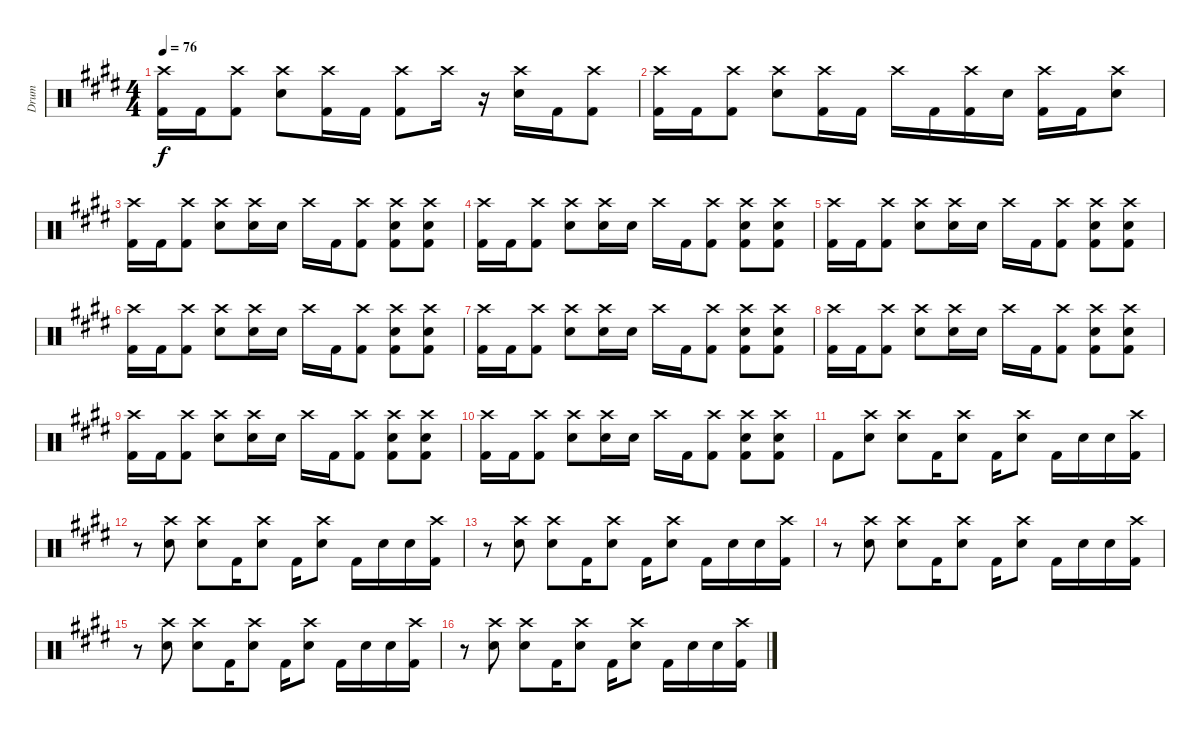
\track ("Drum" "Drum") {instrument percussion}
\staff {score}
\articulation defaults
\ts (4 4)
\tempo 76
\clef neutral
\ks e
("Crash high (hit)" "Kick (hit) 2").16{dy f volume 11} "Kick (hit) 2".16 ("Crash high (hit)" "Kick (hit) 2").8 ("Crash high (hit)" "Electric Snare (hit)").8 ("Crash high (hit)" "Kick (hit) 2").16 "Kick (hit) 2".16 ("Crash high (hit)" "Kick (hit) 2").8 "Crash high (hit)".16 r.16 ("Crash high (hit)" "Electric Snare (hit)").16 "Kick (hit) 2".16 ("Crash high (hit)" "Kick (hit) 2").8 |
("Crash high (hit)" "Kick (hit) 2").16{volume 11} "Kick (hit) 2".16 ("Crash high (hit)" "Kick (hit) 2").8 ("Crash high (hit)" "Electric Snare (hit)").8 ("Crash high (hit)" "Kick (hit) 2").16 "Kick (hit) 2".16 "Crash high (hit)".16 "Kick (hit) 2".16 ("Crash high (hit)" "Kick (hit) 2").16 "Electric Snare (hit)".16 ("Crash high (hit)" "Kick (hit) 2").16 "Kick (hit) 2".16 ("Crash high (hit)" "Electric Snare (hit)").8 |
("Crash high (hit)" "Kick (hit) 2").16 "Kick (hit) 2".16 ("Crash high (hit)" "Kick (hit) 2").8 ("Crash high (hit)" "Electric Snare (hit)").8 ("Crash high (hit)" "Electric Snare (hit)").16 "Electric Snare (hit)".16 "Crash high (hit)".16 "Kick (hit) 2".16 ("Crash high (hit)" "Kick (hit) 2").8 ("Crash high (hit)" "Electric Snare (hit)" "Kick (hit) 2").8 ("Crash high (hit)" "Electric Snare (hit)" "Kick (hit) 2").8 |
("Crash high (hit)" "Kick (hit) 2").16 "Kick (hit) 2".16 ("Crash high (hit)" "Kick (hit) 2").8 ("Crash high (hit)" "Electric Snare (hit)").8 ("Crash high (hit)" "Electric Snare (hit)").16 "Electric Snare (hit)".16 "Crash high (hit)".16 "Kick (hit) 2".16 ("Crash high (hit)" "Kick (hit) 2").8 ("Crash high (hit)" "Electric Snare (hit)" "Kick (hit) 2").8 ("Crash high (hit)" "Electric Snare (hit)" "Kick (hit) 2").8 |
("Crash high (hit)" "Kick (hit) 2").16 "Kick (hit) 2".16 ("Crash high (hit)" "Kick (hit) 2").8 ("Crash high (hit)" "Electric Snare (hit)").8 ("Crash high (hit)" "Electric Snare (hit)").16 "Electric Snare (hit)".16 "Crash high (hit)".16 "Kick (hit) 2".16 ("Crash high (hit)" "Kick (hit) 2").8 ("Crash high (hit)" "Electric Snare (hit)" "Kick (hit) 2").8 ("Crash high (hit)" "Electric Snare (hit)" "Kick (hit) 2").8 |
("Crash high (hit)" "Kick (hit) 2").16 "Kick (hit) 2".16 ("Crash high (hit)" "Kick (hit) 2").8 ("Crash high (hit)" "Electric Snare (hit)").8 ("Crash high (hit)" "Electric Snare (hit)").16 "Electric Snare (hit)".16 "Crash high (hit)".16 "Kick (hit) 2".16 ("Crash high (hit)" "Kick (hit) 2").8 ("Crash high (hit)" "Electric Snare (hit)" "Kick (hit) 2").8 ("Crash high (hit)" "Electric Snare (hit)" "Kick (hit) 2").8 |
("Crash high (hit)" "Kick (hit) 2").16 "Kick (hit) 2".16 ("Crash high (hit)" "Kick (hit) 2").8 ("Crash high (hit)" "Electric Snare (hit)").8 ("Crash high (hit)" "Electric Snare (hit)").16 "Electric Snare (hit)".16 "Crash high (hit)".16 "Kick (hit) 2".16 ("Crash high (hit)" "Kick (hit) 2").8 ("Crash high (hit)" "Electric Snare (hit)" "Kick (hit) 2").8 ("Crash high (hit)" "Electric Snare (hit)" "Kick (hit) 2").8 |
("Crash high (hit)" "Kick (hit) 2").16 "Kick (hit) 2".16 ("Crash high (hit)" "Kick (hit) 2").8 ("Crash high (hit)" "Electric Snare (hit)").8 ("Crash high (hit)" "Electric Snare (hit)").16 "Electric Snare (hit)".16 "Crash high (hit)".16 "Kick (hit) 2".16 ("Crash high (hit)" "Kick (hit) 2").8 ("Crash high (hit)" "Electric Snare (hit)" "Kick (hit) 2").8 ("Crash high (hit)" "Electric Snare (hit)" "Kick (hit) 2").8 |
("Crash high (hit)" "Kick (hit) 2").16 "Kick (hit) 2".16 ("Crash high (hit)" "Kick (hit) 2").8 ("Crash high (hit)" "Electric Snare (hit)").8 ("Crash high (hit)" "Electric Snare (hit)").16 "Electric Snare (hit)".16 "Crash high (hit)".16 "Kick (hit) 2".16 ("Crash high (hit)" "Kick (hit) 2").8 ("Crash high (hit)" "Electric Snare (hit)" "Kick (hit) 2").8 ("Crash high (hit)" "Electric Snare (hit)" "Kick (hit) 2").8 |
("Crash high (hit)" "Kick (hit) 2").16 "Kick (hit) 2".16 ("Crash high (hit)" "Kick (hit) 2").8 ("Crash high (hit)" "Electric Snare (hit)").8 ("Crash high (hit)" "Electric Snare (hit)").16 "Electric Snare (hit)".16 "Crash high (hit)".16 "Kick (hit) 2".16 ("Crash high (hit)" "Kick (hit) 2").8 ("Crash high (hit)" "Electric Snare (hit)" "Kick (hit) 2").8 ("Crash high (hit)" "Electric Snare (hit)" "Kick (hit) 2").8 |
"Kick (hit) 2".8 ("Crash high (hit)" "Electric Snare (hit)").8 ("Crash high (hit)" "Electric Snare (hit)").8 "Kick (hit) 2".16 ("Crash high (hit)" "Electric Snare (hit)").8 "Kick (hit) 2".16 ("Crash high (hit)" "Electric Snare (hit)").8 "Kick (hit) 2".16 "Electric Snare (hit)".16 "Electric Snare (hit)".16 ("Crash high (hit)" "Kick (hit) 2").16 |
r.8 ("Crash high (hit)" "Electric Snare (hit)").8 ("Crash high (hit)" "Electric Snare (hit)").8 "Kick (hit) 2".16 ("Crash high (hit)" "Electric Snare (hit)").8 "Kick (hit) 2".16 ("Crash high (hit)" "Electric Snare (hit)").8 "Kick (hit) 2".16 "Electric Snare (hit)".16 "Electric Snare (hit)".16 ("Crash high (hit)" "Kick (hit) 2").16 |
r.8 ("Crash high (hit)" "Electric Snare (hit)").8 ("Crash high (hit)" "Electric Snare (hit)").8 "Kick (hit) 2".16 ("Crash high (hit)" "Electric Snare (hit)").8 "Kick (hit) 2".16 ("Crash high (hit)" "Electric Snare (hit)").8 "Kick (hit) 2".16 "Electric Snare (hit)".16 "Electric Snare (hit)".16 ("Crash high (hit)" "Kick (hit) 2").16 |
r.8 ("Crash high (hit)" "Electric Snare (hit)").8 ("Crash high (hit)" "Electric Snare (hit)").8 "Kick (hit) 2".16 ("Crash high (hit)" "Electric Snare (hit)").8 "Kick (hit) 2".16 ("Crash high (hit)" "Electric Snare (hit)").8 "Kick (hit) 2".16 "Electric Snare (hit)".16 "Electric Snare (hit)".16 ("Crash high (hit)" "Kick (hit) 2").16 |
r.8 ("Crash high (hit)" "Electric Snare (hit)").8 ("Crash high (hit)" "Electric Snare (hit)").8 "Kick (hit) 2".16 ("Crash high (hit)" "Electric Snare (hit)").8 "Kick (hit) 2".16 ("Crash high (hit)" "Electric Snare (hit)").8 "Kick (hit) 2".16 "Electric Snare (hit)".16 "Electric Snare (hit)".16 ("Crash high (hit)" "Kick (hit) 2").16 |
r.8 ("Crash high (hit)" "Electric Snare (hit)").8 ("Crash high (hit)" "Electric Snare (hit)").8 "Kick (hit) 2".16 ("Crash high (hit)" "Electric Snare (hit)").8 "Kick (hit) 2".16 ("Crash high (hit)" "Electric Snare (hit)").8 "Kick (hit) 2".16 "Electric Snare (hit)".16 "Electric Snare (hit)".16 ("Crash high (hit)" "Kick (hit) 2").16
